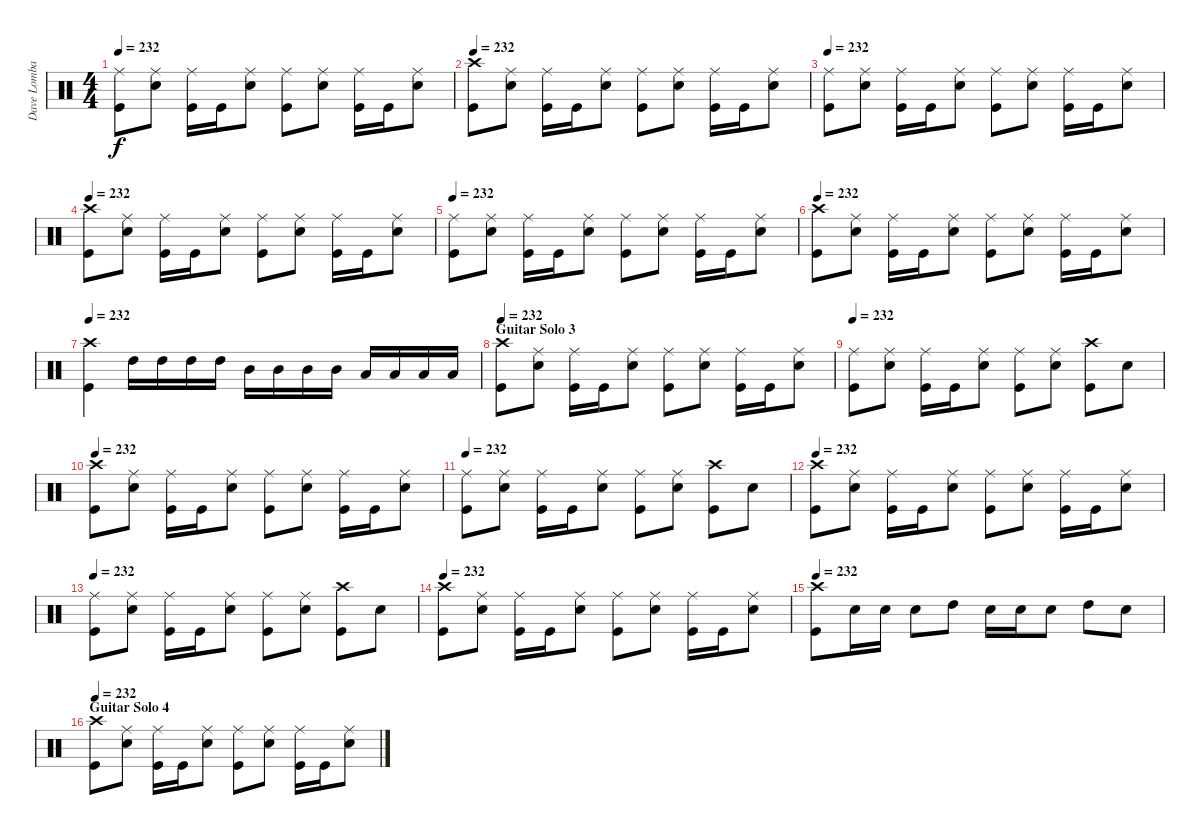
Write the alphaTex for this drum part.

\track ("Dave Lombardo" "Dave Lomba") {instrument percussion}
\staff {score}
\articulation defaults
\ts (4 4)
\tempo 232
\clef neutral
\ks c
("Ride (middle)" "Kick (hit)").8{dy f} ("Ride (middle)" "Snare (hit) 2").8 ("Ride (middle)" "Kick (hit)").16 "Kick (hit)".16 ("Ride (middle)" "Snare (hit) 2").8 ("Ride (middle)" "Kick (hit)").8 ("Ride (middle)" "Snare (hit) 2").8 ("Ride (middle)" "Kick (hit)").16 "Kick (hit)".16 ("Ride (middle)" "Snare (hit) 2").8 |
\tempo 232
("Crash high (hit)" "Kick (hit)").8 ("Ride (middle)" "Snare (hit) 2").8 ("Ride (middle)" "Kick (hit)").16 "Kick (hit)".16 ("Ride (middle)" "Snare (hit) 2").8 ("Ride (middle)" "Kick (hit)").8 ("Ride (middle)" "Snare (hit) 2").8 ("Ride (middle)" "Kick (hit)").16 "Kick (hit)".16 ("Ride (middle)" "Snare (hit) 2").8 |
\tempo 232
("Ride (middle)" "Kick (hit)").8 ("Ride (middle)" "Snare (hit) 2").8 ("Ride (middle)" "Kick (hit)").16 "Kick (hit)".16 ("Ride (middle)" "Snare (hit) 2").8 ("Ride (middle)" "Kick (hit)").8 ("Ride (middle)" "Snare (hit) 2").8 ("Ride (middle)" "Kick (hit)").16 "Kick (hit)".16 ("Ride (middle)" "Snare (hit) 2").8 |
\tempo 232
("Crash high (hit)" "Kick (hit)").8 ("Ride (middle)" "Snare (hit) 2").8 ("Ride (middle)" "Kick (hit)").16 "Kick (hit)".16 ("Ride (middle)" "Snare (hit) 2").8 ("Ride (middle)" "Kick (hit)").8 ("Ride (middle)" "Snare (hit) 2").8 ("Ride (middle)" "Kick (hit)").16 "Kick (hit)".16 ("Ride (middle)" "Snare (hit) 2").8 |
\tempo 232
("Ride (middle)" "Kick (hit)").8 ("Ride (middle)" "Snare (hit) 2").8 ("Ride (middle)" "Kick (hit)").16 "Kick (hit)".16 ("Ride (middle)" "Snare (hit) 2").8 ("Ride (middle)" "Kick (hit)").8 ("Ride (middle)" "Snare (hit) 2").8 ("Ride (middle)" "Kick (hit)").16 "Kick (hit)".16 ("Ride (middle)" "Snare (hit) 2").8 |
\tempo 232
("Crash high (hit)" "Kick (hit)").8 ("Ride (middle)" "Snare (hit) 2").8 ("Ride (middle)" "Kick (hit)").16 "Kick (hit)".16 ("Ride (middle)" "Snare (hit) 2").8 ("Ride (middle)" "Kick (hit)").8 ("Ride (middle)" "Snare (hit) 2").8 ("Ride (middle)" "Kick (hit)").16 "Kick (hit)".16 ("Ride (middle)" "Snare (hit) 2").8 |
\tempo 232
("Crash high (hit)" "Kick (hit)").4 "High Tom (hit)".16 "High Tom (hit)".16 "High Tom (hit)".16 "High Tom (hit)".16 "Mid Tom (hit)".16 "Mid Tom (hit)".16 "Mid Tom (hit)".16 "Mid Tom (hit)".16 "Low Tom (hit)".16 "Low Tom (hit)".16 "Low Tom (hit)".16 "Low Tom (hit)".16 |
\section ("" "Guitar Solo 3")
\tempo 232
("Crash high (hit)" "Kick (hit)").8 ("Ride (middle)" "Snare (hit) 2").8 ("Ride (middle)" "Kick (hit)").16 "Kick (hit)".16 ("Ride (middle)" "Snare (hit) 2").8 ("Ride (middle)" "Kick (hit)").8 ("Ride (middle)" "Snare (hit) 2").8 ("Ride (middle)" "Kick (hit)").16 "Kick (hit)".16 ("Ride (middle)" "Snare (hit) 2").8 |
\tempo 232
("Ride (middle)" "Kick (hit)").8 ("Ride (middle)" "Snare (hit) 2").8 ("Ride (middle)" "Kick (hit)").16 "Kick (hit)".16 ("Ride (middle)" "Snare (hit) 2").8 ("Ride (middle)" "Kick (hit)").8 ("Ride (middle)" "Snare (hit) 2").8 ("Crash high (hit)" "Kick (hit)").8 "Snare (hit) 2".8 |
\tempo 232
("Crash high (hit)" "Kick (hit)").8 ("Ride (middle)" "Snare (hit) 2").8 ("Ride (middle)" "Kick (hit)").16 "Kick (hit)".16 ("Ride (middle)" "Snare (hit) 2").8 ("Ride (middle)" "Kick (hit)").8 ("Ride (middle)" "Snare (hit) 2").8 ("Ride (middle)" "Kick (hit)").16 "Kick (hit)".16 ("Ride (middle)" "Snare (hit) 2").8 |
\tempo 232
("Ride (middle)" "Kick (hit)").8 ("Ride (middle)" "Snare (hit) 2").8 ("Ride (middle)" "Kick (hit)").16 "Kick (hit)".16 ("Ride (middle)" "Snare (hit) 2").8 ("Ride (middle)" "Kick (hit)").8 ("Ride (middle)" "Snare (hit) 2").8 ("Crash high (hit)" "Kick (hit)").8 "Snare (hit) 2".8 |
\tempo 232
("Crash high (hit)" "Kick (hit)").8 ("Ride (middle)" "Snare (hit) 2").8 ("Ride (middle)" "Kick (hit)").16 "Kick (hit)".16 ("Ride (middle)" "Snare (hit) 2").8 ("Ride (middle)" "Kick (hit)").8 ("Ride (middle)" "Snare (hit) 2").8 ("Ride (middle)" "Kick (hit)").16 "Kick (hit)".16 ("Ride (middle)" "Snare (hit) 2").8 |
\tempo 232
("Ride (middle)" "Kick (hit)").8 ("Ride (middle)" "Snare (hit) 2").8 ("Ride (middle)" "Kick (hit)").16 "Kick (hit)".16 ("Ride (middle)" "Snare (hit) 2").8 ("Ride (middle)" "Kick (hit)").8 ("Ride (middle)" "Snare (hit) 2").8 ("Crash high (hit)" "Kick (hit)").8 "Snare (hit) 2".8 |
\tempo 232
("Crash high (hit)" "Kick (hit)").8 ("Ride (middle)" "Snare (hit) 2").8 ("Ride (middle)" "Kick (hit)").16 "Kick (hit)".16 ("Ride (middle)" "Snare (hit) 2").8 ("Ride (middle)" "Kick (hit)").8 ("Ride (middle)" "Snare (hit) 2").8 ("Ride (middle)" "Kick (hit)").16 "Kick (hit)".16 ("Ride (middle)" "Snare (hit) 2").8 |
\tempo 232
("Crash high (hit)" "Kick (hit)").8 "Snare (hit) 2".16 "Snare (hit) 2".16 "Snare (hit) 2".8 "High Tom (hit)".8 "Snare (hit) 2".16 "Snare (hit) 2".16 "Snare (hit) 2".8 "High Tom (hit)".8 "Snare (hit) 2".8 |
\section ("" "Guitar Solo 4")
\tempo 232
("Crash high (hit)" "Kick (hit)").8 ("Ride (middle)" "Snare (hit) 2").8 ("Ride (middle)" "Kick (hit)").16 "Kick (hit)".16 ("Ride (middle)" "Snare (hit) 2").8 ("Ride (middle)" "Kick (hit)").8 ("Ride (middle)" "Snare (hit) 2").8 ("Ride (middle)" "Kick (hit)").16 "Kick (hit)".16 ("Ride (middle)" "Snare (hit) 2").8
